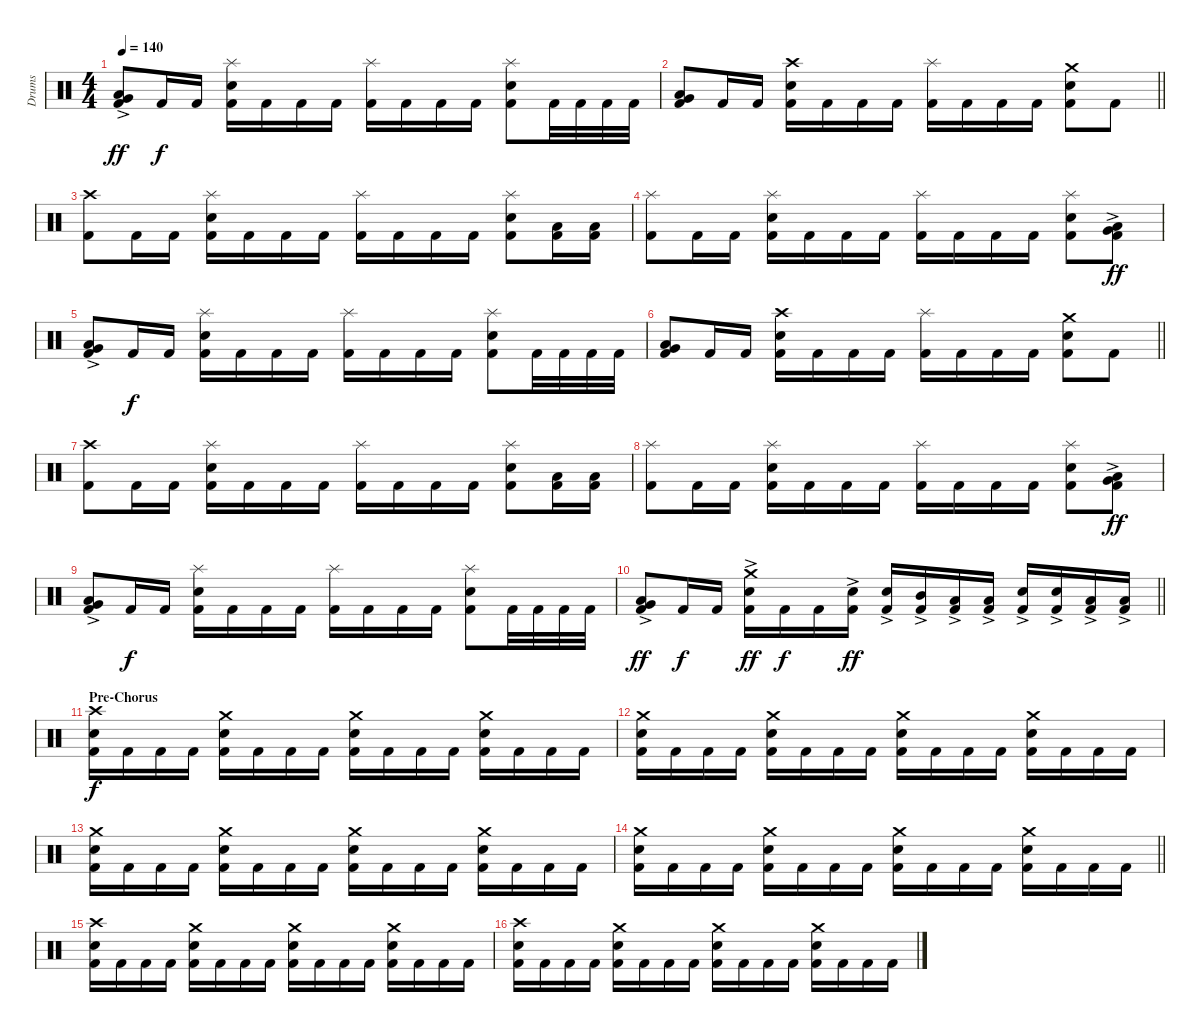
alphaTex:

\track ("Drums" "Drums") {instrument percussion}
\staff {score}
\articulation defaults
\ts (4 4)
\tempo 140
\clef neutral
\ks c
("Kick (hit) 2" "Very Low Tom (hit)"{ac} "Low Floor Tom (hit)"{ac}).8{dy ff} "Kick (hit) 2".16{dy f} "Kick (hit) 2".16 ("Kick (hit) 2" "Snare (hit) 2" "Splash (hit)").16 "Kick (hit) 2".16 "Kick (hit) 2".16 "Kick (hit) 2".16 ("Kick (hit) 2" "Splash (hit)").16 "Kick (hit) 2".16 "Kick (hit) 2".16 "Kick (hit) 2".16 ("Kick (hit) 2" "Snare (hit) 2" "Splash (hit)").8 "Kick (hit) 2".32 "Kick (hit) 2".32 "Kick (hit) 2".32 "Kick (hit) 2".32 |
\barLineRight lightlight
("Kick (hit) 2" "Very Low Tom (hit)" "Low Floor Tom (hit)").8 "Kick (hit) 2".16 "Kick (hit) 2".16 ("Kick (hit) 2" "Snare (hit) 2" "Crash high (hit)").16 "Kick (hit) 2".16 "Kick (hit) 2".16 "Kick (hit) 2".16 ("Kick (hit) 2" "Splash (hit)").16 "Kick (hit) 2".16 "Kick (hit) 2".16 "Kick (hit) 2".16 ("Kick (hit) 2" "Snare (hit) 2" "Crash medium (hit)").8 "Kick (hit) 2".8 |
\section ("" "")
("Kick (hit) 2" "Crash high (hit)").8 "Kick (hit) 2".16 "Kick (hit) 2".16 ("Kick (hit) 2" "Snare (hit) 2" "Splash (hit)").16 "Kick (hit) 2".16 "Kick (hit) 2".16 "Kick (hit) 2".16 ("Kick (hit) 2" "Splash (hit)").16 "Kick (hit) 2".16 "Kick (hit) 2".16 "Kick (hit) 2".16 ("Kick (hit) 2" "Snare (hit) 2" "Splash (hit)").8 ("Kick (hit) 2" "Low Tom (hit)").16 ("Kick (hit) 2" "Low Tom (hit)").16 |
("Kick (hit) 2" "Splash (hit)").8 "Kick (hit) 2".16 "Kick (hit) 2".16 ("Kick (hit) 2" "Snare (hit) 2" "Splash (hit)").16 "Kick (hit) 2".16 "Kick (hit) 2".16 "Kick (hit) 2".16 ("Kick (hit) 2" "Splash (hit)").16 "Kick (hit) 2".16 "Kick (hit) 2".16 "Kick (hit) 2".16 ("Kick (hit) 2" "Snare (hit) 2" "Splash (hit)").8 ("Kick (hit) 2" "Low Tom (hit)"{ac} "Very Low Tom (hit)"{ac}).8{dy ff} |
("Kick (hit) 2" "Very Low Tom (hit)"{ac} "Low Floor Tom (hit)"{ac}).8 "Kick (hit) 2".16{dy f} "Kick (hit) 2".16 ("Kick (hit) 2" "Snare (hit) 2" "Splash (hit)").16 "Kick (hit) 2".16 "Kick (hit) 2".16 "Kick (hit) 2".16 ("Kick (hit) 2" "Splash (hit)").16 "Kick (hit) 2".16 "Kick (hit) 2".16 "Kick (hit) 2".16 ("Kick (hit) 2" "Snare (hit) 2" "Splash (hit)").8 "Kick (hit) 2".32 "Kick (hit) 2".32 "Kick (hit) 2".32 "Kick (hit) 2".32 |
\barLineRight lightlight
("Kick (hit) 2" "Very Low Tom (hit)" "Low Floor Tom (hit)").8 "Kick (hit) 2".16 "Kick (hit) 2".16 ("Kick (hit) 2" "Snare (hit) 2" "Crash high (hit)").16 "Kick (hit) 2".16 "Kick (hit) 2".16 "Kick (hit) 2".16 ("Kick (hit) 2" "Splash (hit)").16 "Kick (hit) 2".16 "Kick (hit) 2".16 "Kick (hit) 2".16 ("Kick (hit) 2" "Snare (hit) 2" "Crash medium (hit)").8 "Kick (hit) 2".8 |
\section ("" "")
("Kick (hit) 2" "Crash high (hit)").8 "Kick (hit) 2".16 "Kick (hit) 2".16 ("Kick (hit) 2" "Snare (hit) 2" "Splash (hit)").16 "Kick (hit) 2".16 "Kick (hit) 2".16 "Kick (hit) 2".16 ("Kick (hit) 2" "Splash (hit)").16 "Kick (hit) 2".16 "Kick (hit) 2".16 "Kick (hit) 2".16 ("Kick (hit) 2" "Snare (hit) 2" "Splash (hit)").8 ("Kick (hit) 2" "Low Tom (hit)").16 ("Kick (hit) 2" "Low Tom (hit)").16 |
("Kick (hit) 2" "Splash (hit)").8 "Kick (hit) 2".16 "Kick (hit) 2".16 ("Kick (hit) 2" "Snare (hit) 2" "Splash (hit)").16 "Kick (hit) 2".16 "Kick (hit) 2".16 "Kick (hit) 2".16 ("Kick (hit) 2" "Splash (hit)").16 "Kick (hit) 2".16 "Kick (hit) 2".16 "Kick (hit) 2".16 ("Kick (hit) 2" "Snare (hit) 2" "Splash (hit)").8 ("Kick (hit) 2" "Low Tom (hit)"{ac} "Very Low Tom (hit)"{ac}).8{dy ff} |
("Kick (hit) 2" "Very Low Tom (hit)"{ac} "Low Floor Tom (hit)"{ac}).8 "Kick (hit) 2".16{dy f} "Kick (hit) 2".16 ("Kick (hit) 2" "Snare (hit) 2" "Splash (hit)").16 "Kick (hit) 2".16 "Kick (hit) 2".16 "Kick (hit) 2".16 ("Kick (hit) 2" "Splash (hit)").16 "Kick (hit) 2".16 "Kick (hit) 2".16 "Kick (hit) 2".16 ("Kick (hit) 2" "Snare (hit) 2" "Splash (hit)").8 "Kick (hit) 2".32 "Kick (hit) 2".32 "Kick (hit) 2".32 "Kick (hit) 2".32 |
\barLineRight lightlight
("Kick (hit) 2" "Very Low Tom (hit)"{ac} "Low Floor Tom (hit)"{ac}).8{dy ff} "Kick (hit) 2".16{dy f} "Kick (hit) 2".16 ("Kick (hit) 2" "Snare (hit) 2"{ac} "Crash medium (hit)").16{dy ff} "Kick (hit) 2".16{dy f} "Kick (hit) 2".16 ("Kick (hit) 2" "Snare (hit) 2"{ac}).16{dy ff} ("Kick (hit) 2" "Snare (hit) 2"{ac}).16 ("Kick (hit) 2" "Mid Tom (hit)"{ac}).16 ("Kick (hit) 2" "Low Tom (hit)"{ac}).16 ("Kick (hit) 2" "Low Tom (hit)"{ac}).16 ("Kick (hit) 2" "Snare (hit) 2"{ac}).16 ("Kick (hit) 2" "Snare (hit) 2"{ac}).16 ("Kick (hit) 2" "Low Floor Tom (hit)"{ac}).16 ("Kick (hit) 2" "Low Floor Tom (hit)"{ac}).16 |
\section ("" "Pre-Chorus")
("Kick (hit) 2" "Snare (hit) 2" "Crash high (hit)").16{dy f volume 12} "Kick (hit) 2".16 "Kick (hit) 2".16 "Kick (hit) 2".16 ("Kick (hit) 2" "Snare (hit) 2" "Crash medium (hit)").16 "Kick (hit) 2".16 "Kick (hit) 2".16 "Kick (hit) 2".16 ("Kick (hit) 2" "Snare (hit) 2" "Crash medium (hit)").16 "Kick (hit) 2".16 "Kick (hit) 2".16 "Kick (hit) 2".16 ("Kick (hit) 2" "Snare (hit) 2" "Crash medium (hit)").16 "Kick (hit) 2".16 "Kick (hit) 2".16 "Kick (hit) 2".16 |
("Kick (hit) 2" "Snare (hit) 2" "Crash medium (hit)").16 "Kick (hit) 2".16 "Kick (hit) 2".16 "Kick (hit) 2".16 ("Kick (hit) 2" "Snare (hit) 2" "Crash medium (hit)").16 "Kick (hit) 2".16 "Kick (hit) 2".16 "Kick (hit) 2".16 ("Kick (hit) 2" "Snare (hit) 2" "Crash medium (hit)").16 "Kick (hit) 2".16 "Kick (hit) 2".16 "Kick (hit) 2".16 ("Kick (hit) 2" "Snare (hit) 2" "Crash medium (hit)").16 "Kick (hit) 2".16 "Kick (hit) 2".16 "Kick (hit) 2".16 |
("Kick (hit) 2" "Snare (hit) 2" "Crash medium (hit)").16 "Kick (hit) 2".16 "Kick (hit) 2".16 "Kick (hit) 2".16 ("Kick (hit) 2" "Snare (hit) 2" "Crash medium (hit)").16 "Kick (hit) 2".16 "Kick (hit) 2".16 "Kick (hit) 2".16 ("Kick (hit) 2" "Snare (hit) 2" "Crash medium (hit)").16 "Kick (hit) 2".16 "Kick (hit) 2".16 "Kick (hit) 2".16 ("Kick (hit) 2" "Snare (hit) 2" "Crash medium (hit)").16 "Kick (hit) 2".16 "Kick (hit) 2".16 "Kick (hit) 2".16 |
\barLineRight lightlight
("Kick (hit) 2" "Snare (hit) 2" "Crash medium (hit)").16 "Kick (hit) 2".16 "Kick (hit) 2".16 "Kick (hit) 2".16 ("Kick (hit) 2" "Snare (hit) 2" "Crash medium (hit)").16 "Kick (hit) 2".16 "Kick (hit) 2".16 "Kick (hit) 2".16 ("Kick (hit) 2" "Snare (hit) 2" "Crash medium (hit)").16 "Kick (hit) 2".16 "Kick (hit) 2".16 "Kick (hit) 2".16 ("Kick (hit) 2" "Snare (hit) 2" "Crash medium (hit)").16 "Kick (hit) 2".16 "Kick (hit) 2".16 "Kick (hit) 2".16 |
\section ("" "")
("Kick (hit) 2" "Snare (hit) 2" "Crash high (hit)").16 "Kick (hit) 2".16 "Kick (hit) 2".16 "Kick (hit) 2".16 ("Kick (hit) 2" "Snare (hit) 2" "Crash medium (hit)").16 "Kick (hit) 2".16 "Kick (hit) 2".16 "Kick (hit) 2".16 ("Kick (hit) 2" "Snare (hit) 2" "Crash medium (hit)").16 "Kick (hit) 2".16 "Kick (hit) 2".16 "Kick (hit) 2".16 ("Kick (hit) 2" "Snare (hit) 2" "Crash medium (hit)").16 "Kick (hit) 2".16 "Kick (hit) 2".16 "Kick (hit) 2".16 |
("Kick (hit) 2" "Snare (hit) 2" "Crash high (hit)").16 "Kick (hit) 2".16 "Kick (hit) 2".16 "Kick (hit) 2".16 ("Kick (hit) 2" "Snare (hit) 2" "Crash medium (hit)").16 "Kick (hit) 2".16 "Kick (hit) 2".16 "Kick (hit) 2".16 ("Kick (hit) 2" "Snare (hit) 2" "Crash medium (hit)").16 "Kick (hit) 2".16 "Kick (hit) 2".16 "Kick (hit) 2".16 ("Kick (hit) 2" "Snare (hit) 2" "Crash medium (hit)").16 "Kick (hit) 2".16 "Kick (hit) 2".16 "Kick (hit) 2".16
